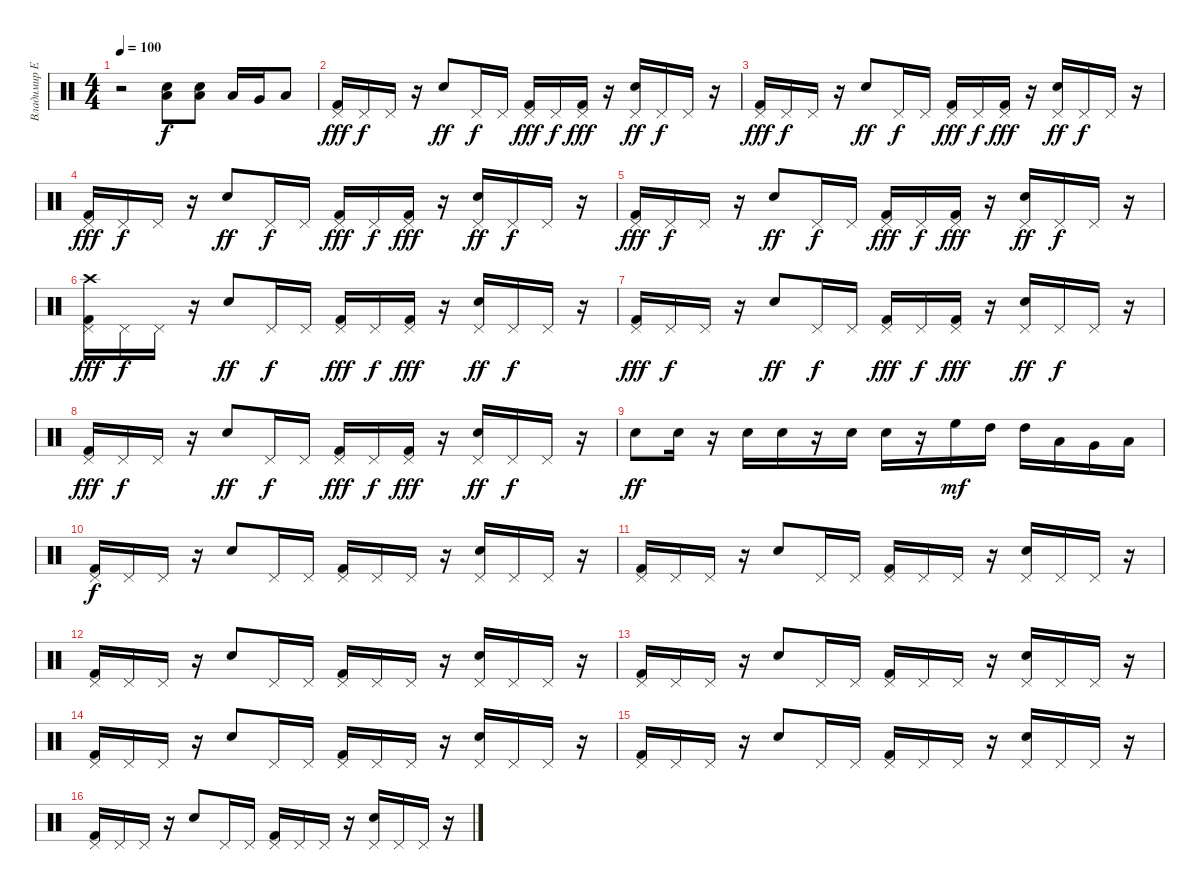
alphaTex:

\track ("Владимир Ермаков" "Владимир Е") {instrument percussion}
\staff {score}
\articulation defaults
\ts (4 4)
\tempo 100
\clef neutral
\ks c
r.2{dy f} ("Low Floor Tom (hit)" "Electric Snare (hit)").8{volume 12} ("Low Floor Tom (hit)" "Electric Snare (hit)").8 "Low Tom (hit)".16 "Very Low Tom (hit)".16 "Low Floor Tom (hit)".8 |
("Kick (hit) 2" "Pedal Hi-Hat (hit)").16{dy fff} "Pedal Hi-Hat (hit)".16{dy f} "Pedal Hi-Hat (hit)".16 r.16 "Electric Snare (hit)".8{dy ff} "Pedal Hi-Hat (hit)".16{dy f} "Pedal Hi-Hat (hit)".16 ("Kick (hit) 2" "Pedal Hi-Hat (hit)").16{dy fff} "Pedal Hi-Hat (hit)".16{dy f} ("Kick (hit) 2" "Pedal Hi-Hat (hit)").16{dy fff} r.16 ("Electric Snare (hit)" "Pedal Hi-Hat (hit)").16{dy ff} "Pedal Hi-Hat (hit)".16{dy f} "Pedal Hi-Hat (hit)".16 r.16 |
("Kick (hit) 2" "Pedal Hi-Hat (hit)").16{dy fff} "Pedal Hi-Hat (hit)".16{dy f} "Pedal Hi-Hat (hit)".16 r.16 "Electric Snare (hit)".8{dy ff} "Pedal Hi-Hat (hit)".16{dy f} "Pedal Hi-Hat (hit)".16 ("Kick (hit) 2" "Pedal Hi-Hat (hit)").16{dy fff} "Pedal Hi-Hat (hit)".16{dy f} ("Kick (hit) 2" "Pedal Hi-Hat (hit)").16{dy fff} r.16 ("Electric Snare (hit)" "Pedal Hi-Hat (hit)").16{dy ff} "Pedal Hi-Hat (hit)".16{dy f} "Pedal Hi-Hat (hit)".16 r.16 |
("Kick (hit) 2" "Pedal Hi-Hat (hit)").16{dy fff} "Pedal Hi-Hat (hit)".16{dy f} "Pedal Hi-Hat (hit)".16 r.16 "Electric Snare (hit)".8{dy ff} "Pedal Hi-Hat (hit)".16{dy f} "Pedal Hi-Hat (hit)".16 ("Kick (hit) 2" "Pedal Hi-Hat (hit)").16{dy fff} "Pedal Hi-Hat (hit)".16{dy f} ("Kick (hit) 2" "Pedal Hi-Hat (hit)").16{dy fff} r.16 ("Electric Snare (hit)" "Pedal Hi-Hat (hit)").16{dy ff} "Pedal Hi-Hat (hit)".16{dy f} "Pedal Hi-Hat (hit)".16 r.16 |
("Kick (hit) 2" "Pedal Hi-Hat (hit)").16{dy fff} "Pedal Hi-Hat (hit)".16{dy f} "Pedal Hi-Hat (hit)".16 r.16 "Electric Snare (hit)".8{dy ff} "Pedal Hi-Hat (hit)".16{dy f} "Pedal Hi-Hat (hit)".16 ("Kick (hit) 2" "Pedal Hi-Hat (hit)").16{dy fff} "Pedal Hi-Hat (hit)".16{dy f} ("Kick (hit) 2" "Pedal Hi-Hat (hit)").16{dy fff} r.16 ("Electric Snare (hit)" "Pedal Hi-Hat (hit)").16{dy ff} "Pedal Hi-Hat (hit)".16{dy f} "Pedal Hi-Hat (hit)".16 r.16 |
("Crash high (hit)" "Kick (hit) 2" "Pedal Hi-Hat (hit)").16{dy fff} "Pedal Hi-Hat (hit)".16{dy f} "Pedal Hi-Hat (hit)".16 r.16 "Electric Snare (hit)".8{dy ff} "Pedal Hi-Hat (hit)".16{dy f} "Pedal Hi-Hat (hit)".16 ("Kick (hit) 2" "Pedal Hi-Hat (hit)").16{dy fff} "Pedal Hi-Hat (hit)".16{dy f} ("Kick (hit) 2" "Pedal Hi-Hat (hit)").16{dy fff} r.16 ("Electric Snare (hit)" "Pedal Hi-Hat (hit)").16{dy ff} "Pedal Hi-Hat (hit)".16{dy f} "Pedal Hi-Hat (hit)".16 r.16 |
("Kick (hit) 2" "Pedal Hi-Hat (hit)").16{dy fff} "Pedal Hi-Hat (hit)".16{dy f} "Pedal Hi-Hat (hit)".16 r.16 "Electric Snare (hit)".8{dy ff} "Pedal Hi-Hat (hit)".16{dy f} "Pedal Hi-Hat (hit)".16 ("Kick (hit) 2" "Pedal Hi-Hat (hit)").16{dy fff} "Pedal Hi-Hat (hit)".16{dy f} ("Kick (hit) 2" "Pedal Hi-Hat (hit)").16{dy fff} r.16 ("Electric Snare (hit)" "Pedal Hi-Hat (hit)").16{dy ff} "Pedal Hi-Hat (hit)".16{dy f} "Pedal Hi-Hat (hit)".16 r.16 |
("Kick (hit) 2" "Pedal Hi-Hat (hit)").16{dy fff} "Pedal Hi-Hat (hit)".16{dy f} "Pedal Hi-Hat (hit)".16 r.16 "Electric Snare (hit)".8{dy ff} "Pedal Hi-Hat (hit)".16{dy f} "Pedal Hi-Hat (hit)".16 ("Kick (hit) 2" "Pedal Hi-Hat (hit)").16{dy fff} "Pedal Hi-Hat (hit)".16{dy f} ("Kick (hit) 2" "Pedal Hi-Hat (hit)").16{dy fff} r.16 ("Electric Snare (hit)" "Pedal Hi-Hat (hit)").16{dy ff} "Pedal Hi-Hat (hit)".16{dy f} "Pedal Hi-Hat (hit)".16 r.16 |
"Electric Snare (hit)".8{dy ff} "Electric Snare (hit)".16 r.16 "Electric Snare (hit)".16 "Electric Snare (hit)".16 r.16 "Electric Snare (hit)".16 "Electric Snare (hit)".16 r.16 "High Floor Tom (hit)".16{dy mf} "High Tom (hit)".16 "High Tom (hit)".16 "Low Tom (hit)".16 "Very Low Tom (hit)".16 "Low Floor Tom (hit)".16 |
("Kick (hit) 2" "Pedal Hi-Hat (hit)").16{dy f} "Pedal Hi-Hat (hit)".16 "Pedal Hi-Hat (hit)".16 r.16 "Electric Snare (hit)".8 "Pedal Hi-Hat (hit)".16 "Pedal Hi-Hat (hit)".16 ("Kick (hit) 2" "Pedal Hi-Hat (hit)").16 "Pedal Hi-Hat (hit)".16 "Pedal Hi-Hat (hit)".16 r.16 ("Electric Snare (hit)" "Pedal Hi-Hat (hit)").16 "Pedal Hi-Hat (hit)".16 "Pedal Hi-Hat (hit)".16 r.16 |
("Kick (hit) 2" "Pedal Hi-Hat (hit)").16 "Pedal Hi-Hat (hit)".16 "Pedal Hi-Hat (hit)".16 r.16 "Electric Snare (hit)".8 "Pedal Hi-Hat (hit)".16 "Pedal Hi-Hat (hit)".16 ("Kick (hit) 2" "Pedal Hi-Hat (hit)").16 "Pedal Hi-Hat (hit)".16 "Pedal Hi-Hat (hit)".16 r.16 ("Electric Snare (hit)" "Pedal Hi-Hat (hit)").16 "Pedal Hi-Hat (hit)".16 "Pedal Hi-Hat (hit)".16 r.16 |
("Kick (hit) 2" "Pedal Hi-Hat (hit)").16 "Pedal Hi-Hat (hit)".16 "Pedal Hi-Hat (hit)".16 r.16 "Electric Snare (hit)".8 "Pedal Hi-Hat (hit)".16 "Pedal Hi-Hat (hit)".16 ("Kick (hit) 2" "Pedal Hi-Hat (hit)").16 "Pedal Hi-Hat (hit)".16 "Pedal Hi-Hat (hit)".16 r.16 ("Electric Snare (hit)" "Pedal Hi-Hat (hit)").16 "Pedal Hi-Hat (hit)".16 "Pedal Hi-Hat (hit)".16 r.16 |
("Kick (hit) 2" "Pedal Hi-Hat (hit)").16 "Pedal Hi-Hat (hit)".16 "Pedal Hi-Hat (hit)".16 r.16 "Electric Snare (hit)".8 "Pedal Hi-Hat (hit)".16 "Pedal Hi-Hat (hit)".16 ("Kick (hit) 2" "Pedal Hi-Hat (hit)").16 "Pedal Hi-Hat (hit)".16 "Pedal Hi-Hat (hit)".16 r.16 ("Electric Snare (hit)" "Pedal Hi-Hat (hit)").16 "Pedal Hi-Hat (hit)".16 "Pedal Hi-Hat (hit)".16 r.16 |
("Kick (hit) 2" "Pedal Hi-Hat (hit)").16 "Pedal Hi-Hat (hit)".16 "Pedal Hi-Hat (hit)".16 r.16 "Electric Snare (hit)".8 "Pedal Hi-Hat (hit)".16 "Pedal Hi-Hat (hit)".16 ("Kick (hit) 2" "Pedal Hi-Hat (hit)").16 "Pedal Hi-Hat (hit)".16 "Pedal Hi-Hat (hit)".16 r.16 ("Electric Snare (hit)" "Pedal Hi-Hat (hit)").16 "Pedal Hi-Hat (hit)".16 "Pedal Hi-Hat (hit)".16 r.16 |
("Kick (hit) 2" "Pedal Hi-Hat (hit)").16 "Pedal Hi-Hat (hit)".16 "Pedal Hi-Hat (hit)".16 r.16 "Electric Snare (hit)".8 "Pedal Hi-Hat (hit)".16 "Pedal Hi-Hat (hit)".16 ("Kick (hit) 2" "Pedal Hi-Hat (hit)").16 "Pedal Hi-Hat (hit)".16 "Pedal Hi-Hat (hit)".16 r.16 ("Electric Snare (hit)" "Pedal Hi-Hat (hit)").16 "Pedal Hi-Hat (hit)".16 "Pedal Hi-Hat (hit)".16 r.16 |
("Kick (hit) 2" "Pedal Hi-Hat (hit)").16 "Pedal Hi-Hat (hit)".16 "Pedal Hi-Hat (hit)".16 r.16 "Electric Snare (hit)".8 "Pedal Hi-Hat (hit)".16 "Pedal Hi-Hat (hit)".16 ("Kick (hit) 2" "Pedal Hi-Hat (hit)").16 "Pedal Hi-Hat (hit)".16 "Pedal Hi-Hat (hit)".16 r.16 ("Electric Snare (hit)" "Pedal Hi-Hat (hit)").16 "Pedal Hi-Hat (hit)".16 "Pedal Hi-Hat (hit)".16 r.16
